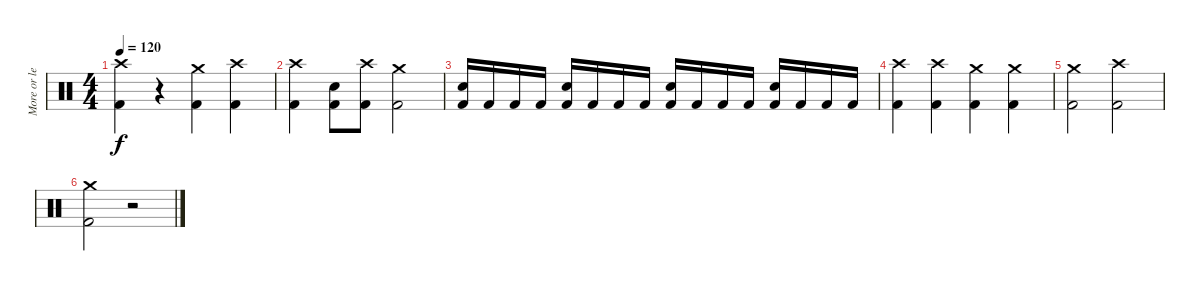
\track ("More or less Drumming" "More or le") {instrument percussion}
\staff {score}
\articulation defaults
\ts (4 4)
\tempo 120
\clef neutral
\ks c
("Kick (hit) 2" "Crash high (hit)").4{dy f} r.4 ("Kick (hit) 2" "Crash medium (hit)").4 ("Kick (hit) 2" "Crash high (hit)").4 |
("Kick (hit) 2" "Crash high (hit)").4 ("Kick (hit) 2" "Electric Snare (hit)").8 ("Kick (hit) 2" "Crash high (hit)").8 ("Kick (hit) 2" "Crash medium (hit)").2 |
("Kick (hit) 2" "Electric Snare (hit)").16 "Kick (hit) 2".16 "Kick (hit) 2".16 "Kick (hit) 2".16 ("Kick (hit) 2" "Electric Snare (hit)").16 "Kick (hit) 2".16 "Kick (hit) 2".16 "Kick (hit) 2".16 ("Kick (hit) 2" "Electric Snare (hit)").16 "Kick (hit) 2".16 "Kick (hit) 2".16 "Kick (hit) 2".16 ("Kick (hit) 2" "Electric Snare (hit)").16 "Kick (hit) 2".16 "Kick (hit) 2".16 "Kick (hit) 2".16 |
("Kick (hit) 2" "Crash high (hit)").4 ("Kick (hit) 2" "Crash high (hit)").4 ("Kick (hit) 2" "Crash medium (hit)").4 ("Kick (hit) 2" "Crash medium (hit)").4 |
("Kick (hit) 2" "Crash medium (hit)").2 ("Crash high (hit)" "Kick (hit) 2").2 |
("Crash medium (hit)" "Kick (hit) 2").2 r.2
